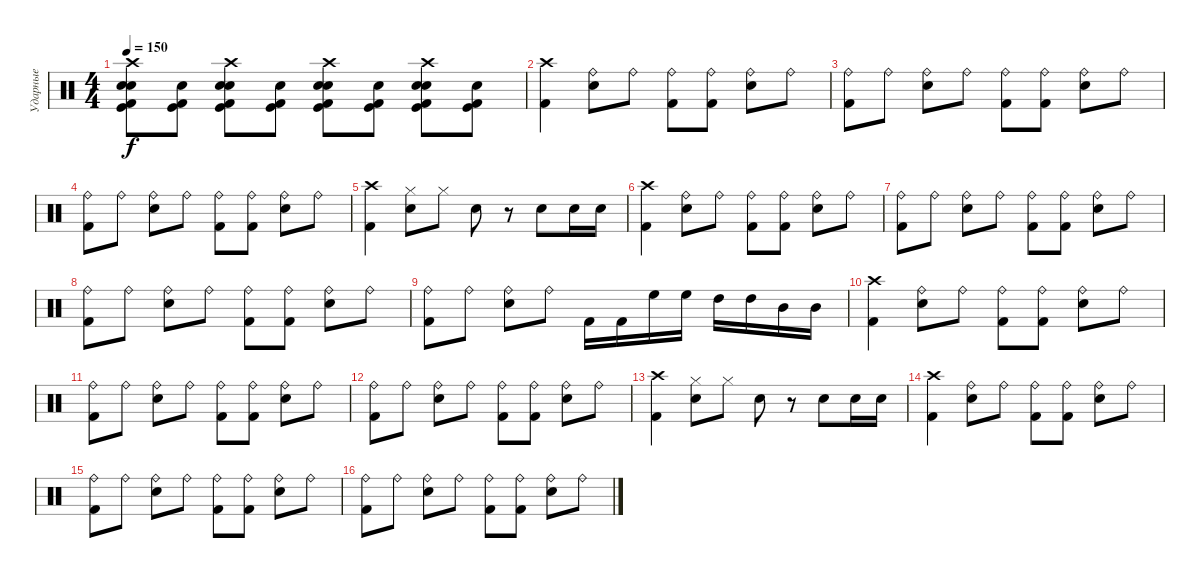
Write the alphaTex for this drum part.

\track ("Ударные" "Ударные") {instrument percussion}
\staff {score}
\articulation defaults
\ts (4 4)
\tempo 150
\clef neutral
\ks c
("Kick (hit)" "Electric Snare (hit)" "Snare (hit) 2" "Kick (hit) 2" "Crash high (hit)").8{dy f} ("Kick (hit)" "Electric Snare (hit)" "Kick (hit) 2").8 ("Kick (hit)" "Electric Snare (hit)" "Snare (hit) 2" "Kick (hit) 2" "Crash high (hit)").8 ("Kick (hit)" "Electric Snare (hit)" "Kick (hit) 2").8 ("Kick (hit)" "Electric Snare (hit)" "Snare (hit) 2" "Kick (hit) 2" "Crash high (hit)").8 ("Kick (hit)" "Electric Snare (hit)" "Kick (hit) 2").8 ("Kick (hit)" "Electric Snare (hit)" "Snare (hit) 2" "Kick (hit) 2" "Crash high (hit)").8 ("Kick (hit)" "Electric Snare (hit)" "Kick (hit) 2").8 |
("Crash high (hit)" "Kick (hit) 2").4 ("Ride (bell)" "Electric Snare (hit)").8 "Ride (bell)".8 ("Ride (bell)" "Kick (hit) 2").8 ("Ride (bell)" "Kick (hit) 2").8 ("Ride (bell)" "Electric Snare (hit)").8 "Ride (bell)".8 |
("Ride (bell)" "Kick (hit) 2").8 "Ride (bell)".8 ("Ride (bell)" "Electric Snare (hit)").8 "Ride (bell)".8 ("Ride (bell)" "Kick (hit) 2").8 ("Ride (bell)" "Kick (hit) 2").8 ("Ride (bell)" "Electric Snare (hit)").8 "Ride (bell)".8 |
("Ride (bell)" "Kick (hit) 2").8 "Ride (bell)".8 ("Ride (bell)" "Electric Snare (hit)").8 "Ride (bell)".8 ("Ride (bell)" "Kick (hit) 2").8 ("Ride (bell)" "Kick (hit) 2").8 ("Ride (bell)" "Electric Snare (hit)").8 "Ride (bell)".8 |
("Crash high (hit)" "Kick (hit) 2").4 ("Hi-Hat (closed)" "Electric Snare (hit)").8 "Hi-Hat (closed)".8 "Electric Snare (hit)".8 r.8 "Electric Snare (hit)".8 "Electric Snare (hit)".16 "Electric Snare (hit)".16 |
("Crash high (hit)" "Kick (hit) 2").4 ("Ride (bell)" "Electric Snare (hit)").8 "Ride (bell)".8 ("Ride (bell)" "Kick (hit) 2").8 ("Ride (bell)" "Kick (hit) 2").8 ("Ride (bell)" "Electric Snare (hit)").8 "Ride (bell)".8 |
("Ride (bell)" "Kick (hit) 2").8 "Ride (bell)".8 ("Ride (bell)" "Electric Snare (hit)").8 "Ride (bell)".8 ("Ride (bell)" "Kick (hit) 2").8 ("Ride (bell)" "Kick (hit) 2").8 ("Ride (bell)" "Electric Snare (hit)").8 "Ride (bell)".8 |
("Ride (bell)" "Kick (hit) 2").8 "Ride (bell)".8 ("Ride (bell)" "Electric Snare (hit)").8 "Ride (bell)".8 ("Ride (bell)" "Kick (hit) 2").8 ("Ride (bell)" "Kick (hit) 2").8 ("Ride (bell)" "Electric Snare (hit)").8 "Ride (bell)".8 |
("Ride (bell)" "Kick (hit) 2").8 "Ride (bell)".8 ("Ride (bell)" "Electric Snare (hit)").8 "Ride (bell)".8 "Kick (hit) 2".16 "Kick (hit) 2".16 "High Floor Tom (hit)".16 "High Floor Tom (hit)".16 "High Tom (hit)".16 "High Tom (hit)".16 "Mid Tom (hit)".16 "Mid Tom (hit)".16 |
("Crash high (hit)" "Kick (hit) 2").4 ("Ride (bell)" "Electric Snare (hit)").8 "Ride (bell)".8 ("Ride (bell)" "Kick (hit) 2").8 ("Ride (bell)" "Kick (hit) 2").8 ("Ride (bell)" "Electric Snare (hit)").8 "Ride (bell)".8 |
("Ride (bell)" "Kick (hit) 2").8 "Ride (bell)".8 ("Ride (bell)" "Electric Snare (hit)").8 "Ride (bell)".8 ("Ride (bell)" "Kick (hit) 2").8 ("Ride (bell)" "Kick (hit) 2").8 ("Ride (bell)" "Electric Snare (hit)").8 "Ride (bell)".8 |
("Ride (bell)" "Kick (hit) 2").8 "Ride (bell)".8 ("Ride (bell)" "Electric Snare (hit)").8 "Ride (bell)".8 ("Ride (bell)" "Kick (hit) 2").8 ("Ride (bell)" "Kick (hit) 2").8 ("Ride (bell)" "Electric Snare (hit)").8 "Ride (bell)".8 |
("Crash high (hit)" "Kick (hit) 2").4 ("Hi-Hat (closed)" "Electric Snare (hit)").8 "Hi-Hat (closed)".8 "Electric Snare (hit)".8 r.8 "Electric Snare (hit)".8 "Electric Snare (hit)".16 "Electric Snare (hit)".16 |
("Crash high (hit)" "Kick (hit) 2").4 ("Ride (bell)" "Electric Snare (hit)").8 "Ride (bell)".8 ("Ride (bell)" "Kick (hit) 2").8 ("Ride (bell)" "Kick (hit) 2").8 ("Ride (bell)" "Electric Snare (hit)").8 "Ride (bell)".8 |
("Ride (bell)" "Kick (hit) 2").8 "Ride (bell)".8 ("Ride (bell)" "Electric Snare (hit)").8 "Ride (bell)".8 ("Ride (bell)" "Kick (hit) 2").8 ("Ride (bell)" "Kick (hit) 2").8 ("Ride (bell)" "Electric Snare (hit)").8 "Ride (bell)".8 |
("Ride (bell)" "Kick (hit) 2").8 "Ride (bell)".8 ("Ride (bell)" "Electric Snare (hit)").8 "Ride (bell)".8 ("Ride (bell)" "Kick (hit) 2").8 ("Ride (bell)" "Kick (hit) 2").8 ("Ride (bell)" "Electric Snare (hit)").8 "Ride (bell)".8
